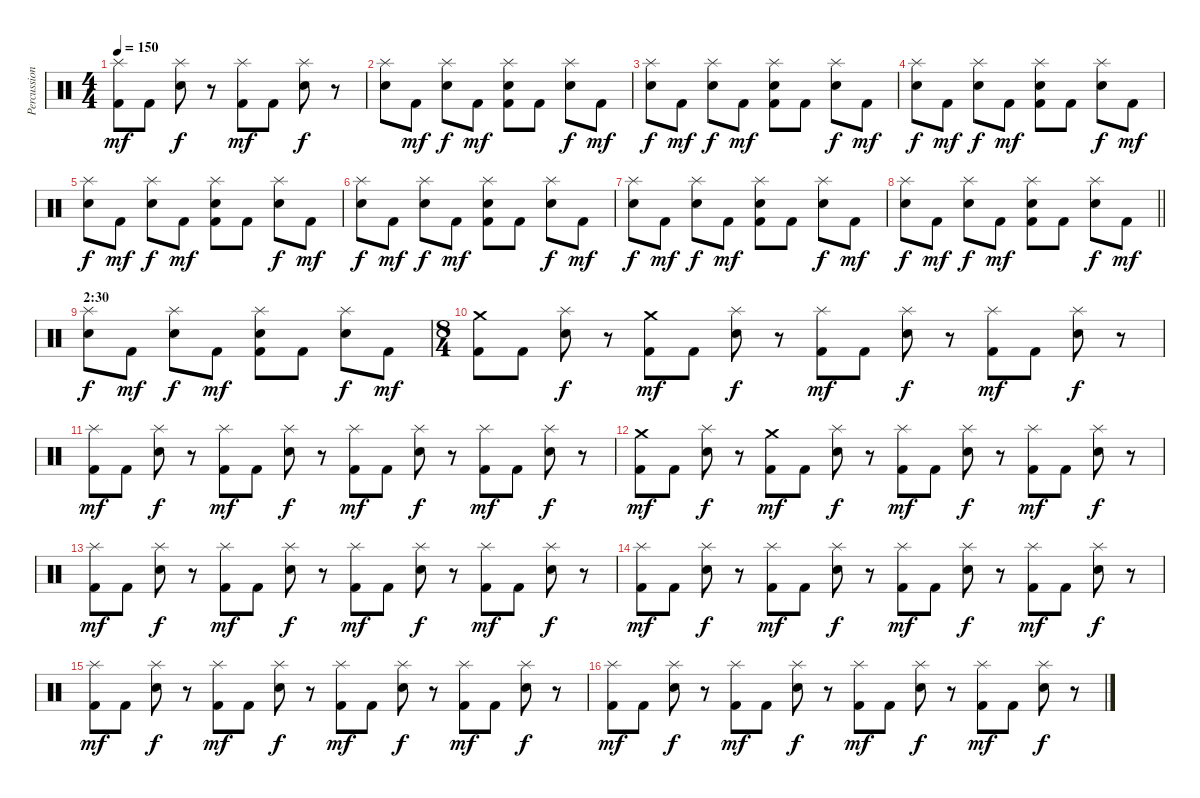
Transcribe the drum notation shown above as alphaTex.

\track ("Percussion" "Percussion") {instrument percussion}
\staff {score}
\articulation defaults
\ts (4 4)
\tempo 150
\clef neutral
\ks c
("Splash (hit)" "Kick (hit) 2").8{dy mf} "Kick (hit) 2".8 ("Splash (hit)" "Snare (hit) 2").8{dy f} r.8 ("Splash (hit)" "Kick (hit) 2").8{dy mf} "Kick (hit) 2".8 ("Splash (hit)" "Snare (hit) 2").8{dy f} r.8 |
("Splash (hit)" "Snare (hit) 2").8 "Kick (hit) 2".8{dy mf} ("Splash (hit)" "Snare (hit) 2").8{dy f} "Kick (hit) 2".8{dy mf} ("Splash (hit)" "Snare (hit) 2" "Kick (hit) 2").8 "Kick (hit) 2".8 ("Splash (hit)" "Snare (hit) 2").8{dy f} "Kick (hit) 2".8{dy mf} |
("Splash (hit)" "Snare (hit) 2").8{dy f} "Kick (hit) 2".8{dy mf} ("Splash (hit)" "Snare (hit) 2").8{dy f} "Kick (hit) 2".8{dy mf} ("Splash (hit)" "Snare (hit) 2" "Kick (hit) 2").8 "Kick (hit) 2".8 ("Splash (hit)" "Snare (hit) 2").8{dy f} "Kick (hit) 2".8{dy mf} |
("Splash (hit)" "Snare (hit) 2").8{dy f} "Kick (hit) 2".8{dy mf} ("Splash (hit)" "Snare (hit) 2").8{dy f} "Kick (hit) 2".8{dy mf} ("Splash (hit)" "Snare (hit) 2" "Kick (hit) 2").8 "Kick (hit) 2".8 ("Splash (hit)" "Snare (hit) 2").8{dy f} "Kick (hit) 2".8{dy mf} |
("Splash (hit)" "Snare (hit) 2").8{dy f} "Kick (hit) 2".8{dy mf} ("Splash (hit)" "Snare (hit) 2").8{dy f} "Kick (hit) 2".8{dy mf} ("Splash (hit)" "Snare (hit) 2" "Kick (hit) 2").8 "Kick (hit) 2".8 ("Splash (hit)" "Snare (hit) 2").8{dy f} "Kick (hit) 2".8{dy mf} |
("Splash (hit)" "Snare (hit) 2").8{dy f} "Kick (hit) 2".8{dy mf} ("Splash (hit)" "Snare (hit) 2").8{dy f} "Kick (hit) 2".8{dy mf} ("Splash (hit)" "Snare (hit) 2" "Kick (hit) 2").8 "Kick (hit) 2".8 ("Splash (hit)" "Snare (hit) 2").8{dy f} "Kick (hit) 2".8{dy mf} |
("Splash (hit)" "Snare (hit) 2").8{dy f} "Kick (hit) 2".8{dy mf} ("Splash (hit)" "Snare (hit) 2").8{dy f} "Kick (hit) 2".8{dy mf} ("Splash (hit)" "Snare (hit) 2" "Kick (hit) 2").8 "Kick (hit) 2".8 ("Splash (hit)" "Snare (hit) 2").8{dy f} "Kick (hit) 2".8{dy mf} |
\barLineRight lightlight
("Splash (hit)" "Snare (hit) 2").8{dy f} "Kick (hit) 2".8{dy mf} ("Splash (hit)" "Snare (hit) 2").8{dy f} "Kick (hit) 2".8{dy mf} ("Splash (hit)" "Snare (hit) 2" "Kick (hit) 2").8 "Kick (hit) 2".8 ("Splash (hit)" "Snare (hit) 2").8{dy f} "Kick (hit) 2".8{dy mf} |
\section ("" "2:30")
("Splash (hit)" "Snare (hit) 2").8{dy f} "Kick (hit) 2".8{dy mf} ("Splash (hit)" "Snare (hit) 2").8{dy f} "Kick (hit) 2".8{dy mf} ("Splash (hit)" "Snare (hit) 2" "Kick (hit) 2").8 "Kick (hit) 2".8 ("Splash (hit)" "Snare (hit) 2").8{dy f} "Kick (hit) 2".8{dy mf} |
\ts (8 4)
("Crash medium (hit)" "Kick (hit) 2").8 "Kick (hit) 2".8 ("Splash (hit)" "Snare (hit) 2").8{dy f} r.8 ("Crash medium (hit)" "Kick (hit) 2").8{dy mf} "Kick (hit) 2".8 ("Splash (hit)" "Snare (hit) 2").8{dy f} r.8 ("Splash (hit)" "Kick (hit) 2").8{dy mf} "Kick (hit) 2".8 ("Splash (hit)" "Snare (hit) 2").8{dy f} r.8 ("Splash (hit)" "Kick (hit) 2").8{dy mf} "Kick (hit) 2".8 ("Splash (hit)" "Snare (hit) 2").8{dy f} r.8 |
("Splash (hit)" "Kick (hit) 2").8{dy mf} "Kick (hit) 2".8 ("Splash (hit)" "Snare (hit) 2").8{dy f} r.8 ("Splash (hit)" "Kick (hit) 2").8{dy mf} "Kick (hit) 2".8 ("Splash (hit)" "Snare (hit) 2").8{dy f} r.8 ("Splash (hit)" "Kick (hit) 2").8{dy mf} "Kick (hit) 2".8 ("Splash (hit)" "Snare (hit) 2").8{dy f} r.8 ("Splash (hit)" "Kick (hit) 2").8{dy mf} "Kick (hit) 2".8 ("Splash (hit)" "Snare (hit) 2").8{dy f} r.8 |
("Crash medium (hit)" "Kick (hit) 2").8{dy mf} "Kick (hit) 2".8 ("Splash (hit)" "Snare (hit) 2").8{dy f} r.8 ("Crash medium (hit)" "Kick (hit) 2").8{dy mf} "Kick (hit) 2".8 ("Splash (hit)" "Snare (hit) 2").8{dy f} r.8 ("Splash (hit)" "Kick (hit) 2").8{dy mf} "Kick (hit) 2".8 ("Splash (hit)" "Snare (hit) 2").8{dy f} r.8 ("Splash (hit)" "Kick (hit) 2").8{dy mf} "Kick (hit) 2".8 ("Splash (hit)" "Snare (hit) 2").8{dy f} r.8 |
("Splash (hit)" "Kick (hit) 2").8{dy mf} "Kick (hit) 2".8 ("Splash (hit)" "Snare (hit) 2").8{dy f} r.8 ("Splash (hit)" "Kick (hit) 2").8{dy mf} "Kick (hit) 2".8 ("Splash (hit)" "Snare (hit) 2").8{dy f} r.8 ("Splash (hit)" "Kick (hit) 2").8{dy mf} "Kick (hit) 2".8 ("Splash (hit)" "Snare (hit) 2").8{dy f} r.8 ("Splash (hit)" "Kick (hit) 2").8{dy mf} "Kick (hit) 2".8 ("Splash (hit)" "Snare (hit) 2").8{dy f} r.8 |
("Splash (hit)" "Kick (hit) 2").8{dy mf} "Kick (hit) 2".8 ("Splash (hit)" "Snare (hit) 2").8{dy f} r.8 ("Splash (hit)" "Kick (hit) 2").8{dy mf} "Kick (hit) 2".8 ("Splash (hit)" "Snare (hit) 2").8{dy f} r.8 ("Splash (hit)" "Kick (hit) 2").8{dy mf} "Kick (hit) 2".8 ("Splash (hit)" "Snare (hit) 2").8{dy f} r.8 ("Splash (hit)" "Kick (hit) 2").8{dy mf} "Kick (hit) 2".8 ("Splash (hit)" "Snare (hit) 2").8{dy f} r.8 |
("Splash (hit)" "Kick (hit) 2").8{dy mf} "Kick (hit) 2".8 ("Splash (hit)" "Snare (hit) 2").8{dy f} r.8 ("Splash (hit)" "Kick (hit) 2").8{dy mf} "Kick (hit) 2".8 ("Splash (hit)" "Snare (hit) 2").8{dy f} r.8 ("Splash (hit)" "Kick (hit) 2").8{dy mf} "Kick (hit) 2".8 ("Splash (hit)" "Snare (hit) 2").8{dy f} r.8 ("Splash (hit)" "Kick (hit) 2").8{dy mf} "Kick (hit) 2".8 ("Splash (hit)" "Snare (hit) 2").8{dy f} r.8 |
("Splash (hit)" "Kick (hit) 2").8{dy mf} "Kick (hit) 2".8 ("Splash (hit)" "Snare (hit) 2").8{dy f} r.8 ("Splash (hit)" "Kick (hit) 2").8{dy mf} "Kick (hit) 2".8 ("Splash (hit)" "Snare (hit) 2").8{dy f} r.8 ("Splash (hit)" "Kick (hit) 2").8{dy mf} "Kick (hit) 2".8 ("Splash (hit)" "Snare (hit) 2").8{dy f} r.8 ("Splash (hit)" "Kick (hit) 2").8{dy mf} "Kick (hit) 2".8 ("Splash (hit)" "Snare (hit) 2").8{dy f} r.8
